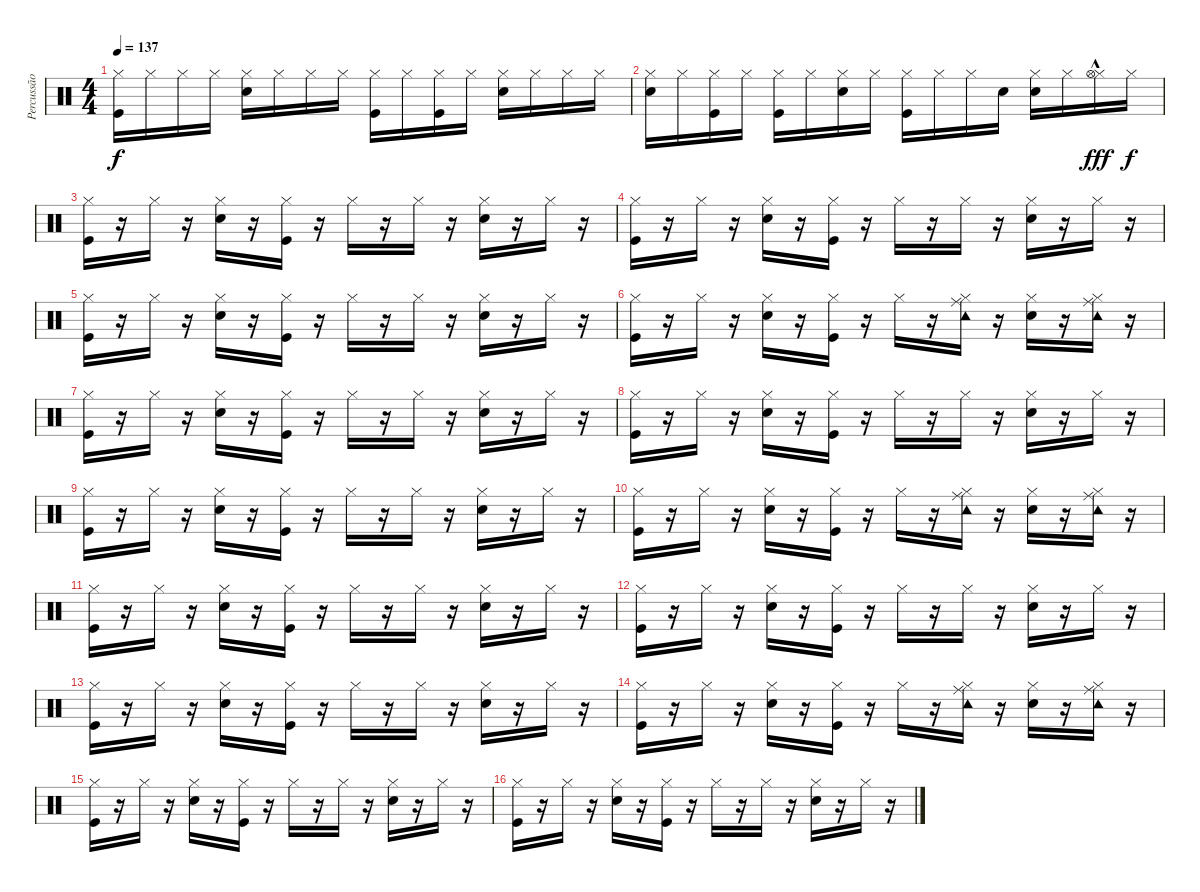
\track ("Percussão" "Percussão") {instrument percussion}
\staff {score}
\articulation defaults
\ts (4 4)
\tempo 137
\clef neutral
\ks c
("Kick (hit)" "Hi-Hat (closed)").16{dy f} "Hi-Hat (closed)".16 "Hi-Hat (closed)".16 "Hi-Hat (closed)".16 ("Hi-Hat (closed)" "Snare (hit) 2").16 "Hi-Hat (closed)".16 "Hi-Hat (closed)".16 "Hi-Hat (closed)".16 ("Hi-Hat (closed)" "Kick (hit)").16 "Hi-Hat (closed)".16 ("Hi-Hat (closed)" "Kick (hit)").16 "Hi-Hat (closed)".16 ("Snare (hit) 2" "Hi-Hat (closed)").16 "Hi-Hat (closed)".16 "Hi-Hat (closed)".16 "Hi-Hat (closed)".16 |
("Snare (hit) 2" "Hi-Hat (closed)").16 "Hi-Hat (closed)".16 ("Hi-Hat (closed)" "Kick (hit)").16 "Hi-Hat (closed)".16 ("Hi-Hat (closed)" "Kick (hit)").16 "Hi-Hat (closed)".16 ("Snare (hit) 2" "Hi-Hat (closed)").16 "Hi-Hat (closed)".16 ("Hi-Hat (closed)" "Kick (hit)").16 "Hi-Hat (closed)".16 "Hi-Hat (closed)".16 "Snare (hit) 2".16 ("Snare (hit) 2" "Hi-Hat (closed)").16 "Hi-Hat (closed)".16 ("Hi-Hat (closed)"{hac} "Hi-Hat (open)").16{dy fff} "Hi-Hat (closed)".16{dy f} |
("Kick (hit)" "Hi-Hat (closed)").16{volume 11} r.16 "Hi-Hat (closed)".16 r.16 ("Hi-Hat (closed)" "Snare (hit) 2").16 r.16 ("Kick (hit)" "Hi-Hat (closed)").16 r.16 "Hi-Hat (closed)".16 r.16 "Hi-Hat (closed)".16 r.16 ("Snare (hit) 2" "Hi-Hat (closed)").16 r.16 "Hi-Hat (closed)".16 r.16 |
("Kick (hit)" "Hi-Hat (closed)").16 r.16 "Hi-Hat (closed)".16 r.16 ("Hi-Hat (closed)" "Snare (hit) 2").16 r.16 ("Kick (hit)" "Hi-Hat (closed)").16 r.16 "Hi-Hat (closed)".16 r.16 "Hi-Hat (closed)".16 r.16 ("Snare (hit) 2" "Hi-Hat (closed)").16 r.16 "Hi-Hat (closed)".16 r.16 |
("Kick (hit)" "Hi-Hat (closed)").16 r.16 "Hi-Hat (closed)".16 r.16 ("Hi-Hat (closed)" "Snare (hit) 2").16 r.16 ("Kick (hit)" "Hi-Hat (closed)").16 r.16 "Hi-Hat (closed)".16 r.16 "Hi-Hat (closed)".16 r.16 ("Snare (hit) 2" "Hi-Hat (closed)").16 r.16 "Hi-Hat (closed)".16 r.16 |
("Kick (hit)" "Hi-Hat (closed)").16 r.16 "Hi-Hat (closed)".16 r.16 ("Hi-Hat (closed)" "Snare (hit) 2").16 r.16 ("Kick (hit)" "Hi-Hat (closed)").16 r.16 "Hi-Hat (closed)".16 r.16 ("Hi-Hat (closed)" "Ride (middle)" "Tambourine (hit)").16 r.16 ("Snare (hit) 2" "Hi-Hat (closed)").16 r.16 ("Hi-Hat (closed)" "Ride (middle)" "Tambourine (hit)").16 r.16 |
("Kick (hit)" "Hi-Hat (closed)").16 r.16 "Hi-Hat (closed)".16 r.16 ("Hi-Hat (closed)" "Snare (hit) 2").16 r.16 ("Kick (hit)" "Hi-Hat (closed)").16 r.16 "Hi-Hat (closed)".16 r.16 "Hi-Hat (closed)".16 r.16 ("Snare (hit) 2" "Hi-Hat (closed)").16 r.16 "Hi-Hat (closed)".16 r.16 |
("Kick (hit)" "Hi-Hat (closed)").16 r.16 "Hi-Hat (closed)".16 r.16 ("Hi-Hat (closed)" "Snare (hit) 2").16 r.16 ("Kick (hit)" "Hi-Hat (closed)").16 r.16 "Hi-Hat (closed)".16 r.16 "Hi-Hat (closed)".16 r.16 ("Snare (hit) 2" "Hi-Hat (closed)").16 r.16 "Hi-Hat (closed)".16 r.16 |
("Kick (hit)" "Hi-Hat (closed)").16 r.16 "Hi-Hat (closed)".16 r.16 ("Hi-Hat (closed)" "Snare (hit) 2").16 r.16 ("Kick (hit)" "Hi-Hat (closed)").16 r.16 "Hi-Hat (closed)".16 r.16 "Hi-Hat (closed)".16 r.16 ("Snare (hit) 2" "Hi-Hat (closed)").16 r.16 "Hi-Hat (closed)".16 r.16 |
("Kick (hit)" "Hi-Hat (closed)").16 r.16 "Hi-Hat (closed)".16 r.16 ("Hi-Hat (closed)" "Snare (hit) 2").16 r.16 ("Kick (hit)" "Hi-Hat (closed)").16 r.16 "Hi-Hat (closed)".16 r.16 ("Hi-Hat (closed)" "Ride (middle)" "Tambourine (hit)").16 r.16 ("Snare (hit) 2" "Hi-Hat (closed)").16 r.16 ("Hi-Hat (closed)" "Ride (middle)" "Tambourine (hit)").16 r.16 |
("Kick (hit)" "Hi-Hat (closed)").16 r.16 "Hi-Hat (closed)".16 r.16 ("Hi-Hat (closed)" "Snare (hit) 2").16 r.16 ("Kick (hit)" "Hi-Hat (closed)").16 r.16 "Hi-Hat (closed)".16 r.16 "Hi-Hat (closed)".16 r.16 ("Snare (hit) 2" "Hi-Hat (closed)").16 r.16 "Hi-Hat (closed)".16 r.16 |
("Kick (hit)" "Hi-Hat (closed)").16 r.16 "Hi-Hat (closed)".16 r.16 ("Hi-Hat (closed)" "Snare (hit) 2").16 r.16 ("Kick (hit)" "Hi-Hat (closed)").16 r.16 "Hi-Hat (closed)".16 r.16 "Hi-Hat (closed)".16 r.16 ("Snare (hit) 2" "Hi-Hat (closed)").16 r.16 "Hi-Hat (closed)".16 r.16 |
("Kick (hit)" "Hi-Hat (closed)").16 r.16 "Hi-Hat (closed)".16 r.16 ("Hi-Hat (closed)" "Snare (hit) 2").16 r.16 ("Kick (hit)" "Hi-Hat (closed)").16 r.16 "Hi-Hat (closed)".16 r.16 "Hi-Hat (closed)".16 r.16 ("Snare (hit) 2" "Hi-Hat (closed)").16 r.16 "Hi-Hat (closed)".16 r.16 |
("Kick (hit)" "Hi-Hat (closed)").16 r.16 "Hi-Hat (closed)".16 r.16 ("Hi-Hat (closed)" "Snare (hit) 2").16 r.16 ("Kick (hit)" "Hi-Hat (closed)").16 r.16 "Hi-Hat (closed)".16 r.16 ("Hi-Hat (closed)" "Ride (middle)" "Tambourine (hit)").16 r.16 ("Snare (hit) 2" "Hi-Hat (closed)").16 r.16 ("Hi-Hat (closed)" "Ride (middle)" "Tambourine (hit)").16 r.16 |
("Kick (hit)" "Hi-Hat (closed)").16 r.16 "Hi-Hat (closed)".16 r.16 ("Hi-Hat (closed)" "Snare (hit) 2").16 r.16 ("Kick (hit)" "Hi-Hat (closed)").16 r.16 "Hi-Hat (closed)".16 r.16 "Hi-Hat (closed)".16 r.16 ("Snare (hit) 2" "Hi-Hat (closed)").16 r.16 "Hi-Hat (closed)".16 r.16 |
("Kick (hit)" "Hi-Hat (closed)").16 r.16 "Hi-Hat (closed)".16 r.16 ("Hi-Hat (closed)" "Snare (hit) 2").16 r.16 ("Kick (hit)" "Hi-Hat (closed)").16 r.16 "Hi-Hat (closed)".16 r.16 "Hi-Hat (closed)".16 r.16 ("Snare (hit) 2" "Hi-Hat (closed)").16 r.16 "Hi-Hat (closed)".16 r.16
